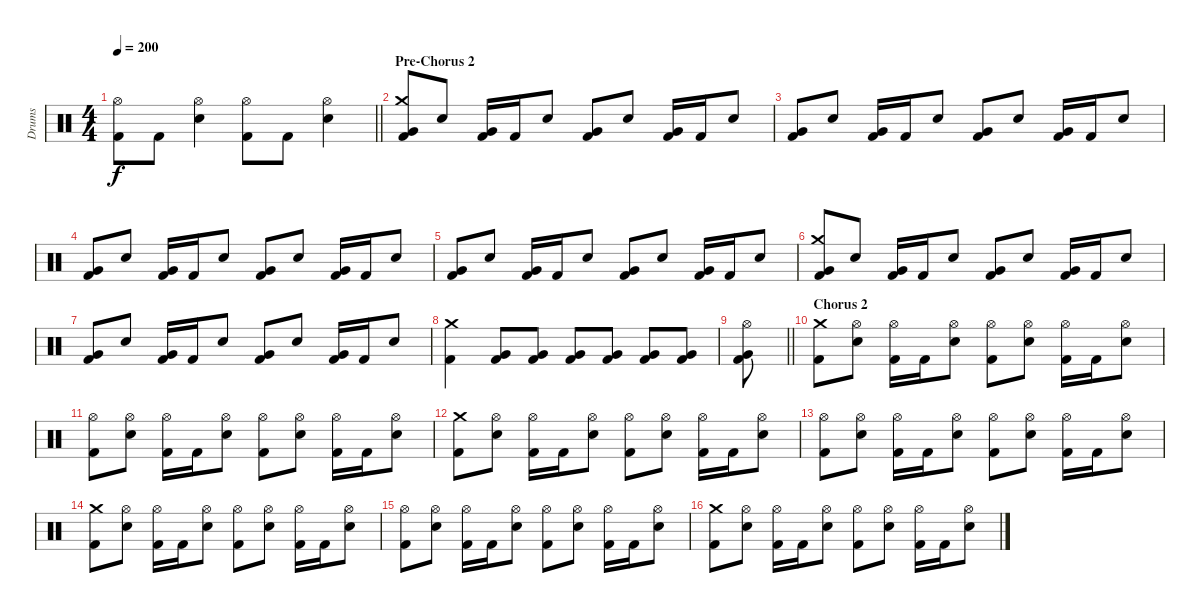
\track ("Drums" "Drums") {instrument percussion}
\staff {score}
\articulation defaults
\ts (4 4)
\tempo 200
\clef neutral
\barLineRight lightlight
\ks c
("Hi-Hat (open)" "Kick (hit) 2").8{dy f} "Kick (hit) 2".8 ("Hi-Hat (open)" "Electric Snare (hit)").4 ("Hi-Hat (open)" "Kick (hit) 2").8 "Kick (hit) 2".8 ("Hi-Hat (open)" "Electric Snare (hit)").4 |
\section ("" "Pre-Chorus 2")
("Crash medium (hit)" "Very Low Tom (hit)" "Kick (hit) 2").8 "Electric Snare (hit)".8 ("Very Low Tom (hit)" "Kick (hit) 2").16 "Kick (hit) 2".16 "Electric Snare (hit)".8 ("Very Low Tom (hit)" "Kick (hit) 2").8 "Electric Snare (hit)".8 ("Very Low Tom (hit)" "Kick (hit) 2").16 "Kick (hit) 2".16 "Electric Snare (hit)".8 |
("Very Low Tom (hit)" "Kick (hit) 2").8 "Electric Snare (hit)".8 ("Very Low Tom (hit)" "Kick (hit) 2").16 "Kick (hit) 2".16 "Electric Snare (hit)".8 ("Very Low Tom (hit)" "Kick (hit) 2").8 "Electric Snare (hit)".8 ("Very Low Tom (hit)" "Kick (hit) 2").16 "Kick (hit) 2".16 "Electric Snare (hit)".8 |
("Very Low Tom (hit)" "Kick (hit) 2").8 "Electric Snare (hit)".8 ("Very Low Tom (hit)" "Kick (hit) 2").16 "Kick (hit) 2".16 "Electric Snare (hit)".8 ("Very Low Tom (hit)" "Kick (hit) 2").8 "Electric Snare (hit)".8 ("Very Low Tom (hit)" "Kick (hit) 2").16 "Kick (hit) 2".16 "Electric Snare (hit)".8 |
("Very Low Tom (hit)" "Kick (hit) 2").8 "Electric Snare (hit)".8 ("Very Low Tom (hit)" "Kick (hit) 2").16 "Kick (hit) 2".16 "Electric Snare (hit)".8 ("Very Low Tom (hit)" "Kick (hit) 2").8 "Electric Snare (hit)".8 ("Very Low Tom (hit)" "Kick (hit) 2").16 "Kick (hit) 2".16 "Electric Snare (hit)".8 |
("Crash medium (hit)" "Very Low Tom (hit)" "Kick (hit) 2").8 "Electric Snare (hit)".8 ("Very Low Tom (hit)" "Kick (hit) 2").16 "Kick (hit) 2".16 "Electric Snare (hit)".8 ("Very Low Tom (hit)" "Kick (hit) 2").8 "Electric Snare (hit)".8 ("Very Low Tom (hit)" "Kick (hit) 2").16 "Kick (hit) 2".16 "Electric Snare (hit)".8 |
("Very Low Tom (hit)" "Kick (hit) 2").8 "Electric Snare (hit)".8 ("Very Low Tom (hit)" "Kick (hit) 2").16 "Kick (hit) 2".16 "Electric Snare (hit)".8 ("Very Low Tom (hit)" "Kick (hit) 2").8 "Electric Snare (hit)".8 ("Very Low Tom (hit)" "Kick (hit) 2").16 "Kick (hit) 2".16 "Electric Snare (hit)".8 |
("Crash medium (hit)" "Kick (hit) 2").4 ("Very Low Tom (hit)" "Kick (hit) 2").8 ("Very Low Tom (hit)" "Kick (hit) 2").8 ("Very Low Tom (hit)" "Kick (hit) 2").8 ("Very Low Tom (hit)" "Kick (hit) 2").8 ("Very Low Tom (hit)" "Kick (hit) 2").8 ("Very Low Tom (hit)" "Kick (hit) 2").8 |
\barLineRight lightlight
("Hi-Hat (open)" "Very Low Tom (hit)" "Kick (hit) 2").8 |
\section ("" "Chorus 2")
("Crash medium (hit)" "Kick (hit) 2").8 ("Hi-Hat (open)" "Electric Snare (hit)").8 ("Hi-Hat (open)" "Kick (hit) 2").16 "Kick (hit) 2".16 ("Hi-Hat (open)" "Electric Snare (hit)").8 ("Hi-Hat (open)" "Kick (hit) 2").8 ("Hi-Hat (open)" "Electric Snare (hit)").8 ("Hi-Hat (open)" "Kick (hit) 2").16 "Kick (hit) 2".16 ("Hi-Hat (open)" "Electric Snare (hit)").8 |
("Hi-Hat (open)" "Kick (hit) 2").8 ("Hi-Hat (open)" "Electric Snare (hit)").8 ("Hi-Hat (open)" "Kick (hit) 2").16 "Kick (hit) 2".16 ("Hi-Hat (open)" "Electric Snare (hit)").8 ("Hi-Hat (open)" "Kick (hit) 2").8 ("Hi-Hat (open)" "Electric Snare (hit)").8 ("Hi-Hat (open)" "Kick (hit) 2").16 "Kick (hit) 2".16 ("Hi-Hat (open)" "Electric Snare (hit)").8 |
("Crash medium (hit)" "Kick (hit) 2").8 ("Hi-Hat (open)" "Electric Snare (hit)").8 ("Hi-Hat (open)" "Kick (hit) 2").16 "Kick (hit) 2".16 ("Hi-Hat (open)" "Electric Snare (hit)").8 ("Hi-Hat (open)" "Kick (hit) 2").8 ("Hi-Hat (open)" "Electric Snare (hit)").8 ("Hi-Hat (open)" "Kick (hit) 2").16 "Kick (hit) 2".16 ("Hi-Hat (open)" "Electric Snare (hit)").8 |
("Hi-Hat (open)" "Kick (hit) 2").8 ("Hi-Hat (open)" "Electric Snare (hit)").8 ("Hi-Hat (open)" "Kick (hit) 2").16 "Kick (hit) 2".16 ("Hi-Hat (open)" "Electric Snare (hit)").8 ("Hi-Hat (open)" "Kick (hit) 2").8 ("Hi-Hat (open)" "Electric Snare (hit)").8 ("Hi-Hat (open)" "Kick (hit) 2").16 "Kick (hit) 2".16 ("Hi-Hat (open)" "Electric Snare (hit)").8 |
("Crash medium (hit)" "Kick (hit) 2").8 ("Hi-Hat (open)" "Electric Snare (hit)").8 ("Hi-Hat (open)" "Kick (hit) 2").16 "Kick (hit) 2".16 ("Hi-Hat (open)" "Electric Snare (hit)").8 ("Hi-Hat (open)" "Kick (hit) 2").8 ("Hi-Hat (open)" "Electric Snare (hit)").8 ("Hi-Hat (open)" "Kick (hit) 2").16 "Kick (hit) 2".16 ("Hi-Hat (open)" "Electric Snare (hit)").8 |
("Hi-Hat (open)" "Kick (hit) 2").8 ("Hi-Hat (open)" "Electric Snare (hit)").8 ("Hi-Hat (open)" "Kick (hit) 2").16 "Kick (hit) 2".16 ("Hi-Hat (open)" "Electric Snare (hit)").8 ("Hi-Hat (open)" "Kick (hit) 2").8 ("Hi-Hat (open)" "Electric Snare (hit)").8 ("Hi-Hat (open)" "Kick (hit) 2").16 "Kick (hit) 2".16 ("Hi-Hat (open)" "Electric Snare (hit)").8 |
("Crash medium (hit)" "Kick (hit) 2").8 ("Hi-Hat (open)" "Electric Snare (hit)").8 ("Hi-Hat (open)" "Kick (hit) 2").16 "Kick (hit) 2".16 ("Hi-Hat (open)" "Electric Snare (hit)").8 ("Hi-Hat (open)" "Kick (hit) 2").8 ("Hi-Hat (open)" "Electric Snare (hit)").8 ("Hi-Hat (open)" "Kick (hit) 2").16 "Kick (hit) 2".16 ("Hi-Hat (open)" "Electric Snare (hit)").8
